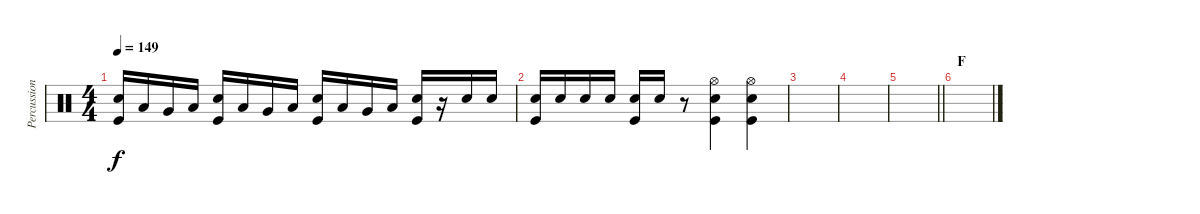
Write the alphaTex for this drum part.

\track ("Percussions" "Percussion") {instrument percussion}
\staff {score}
\articulation defaults
\ts (4 4)
\tempo 149
\clef neutral
\ks c
("Electric Snare (hit)" "Kick (hit)").16{dy f} "Low Tom (hit)".16 "Very Low Tom (hit)".16 "Low Tom (hit)".16 ("Electric Snare (hit)" "Kick (hit)").16 "Low Tom (hit)".16 "Very Low Tom (hit)".16 "Low Tom (hit)".16 ("Electric Snare (hit)" "Kick (hit)").16 "Low Tom (hit)".16 "Very Low Tom (hit)".16 "Low Tom (hit)".16 ("Electric Snare (hit)" "Kick (hit)").16 r.16 "Electric Snare (hit)".16 "Electric Snare (hit)".16 |
("Electric Snare (hit)" "Kick (hit)").16 "Electric Snare (hit)".16 "Electric Snare (hit)".16 "Electric Snare (hit)".16 ("Electric Snare (hit)" "Kick (hit)").16 "Electric Snare (hit)".16 r.8 ("Hi-Hat (open)" "Electric Snare (hit)" "Kick (hit)").4 ("Hi-Hat (open)" "Electric Snare (hit)" "Kick (hit)").4 |
|
|
\barLineRight lightlight
|
\section ("" "F")
